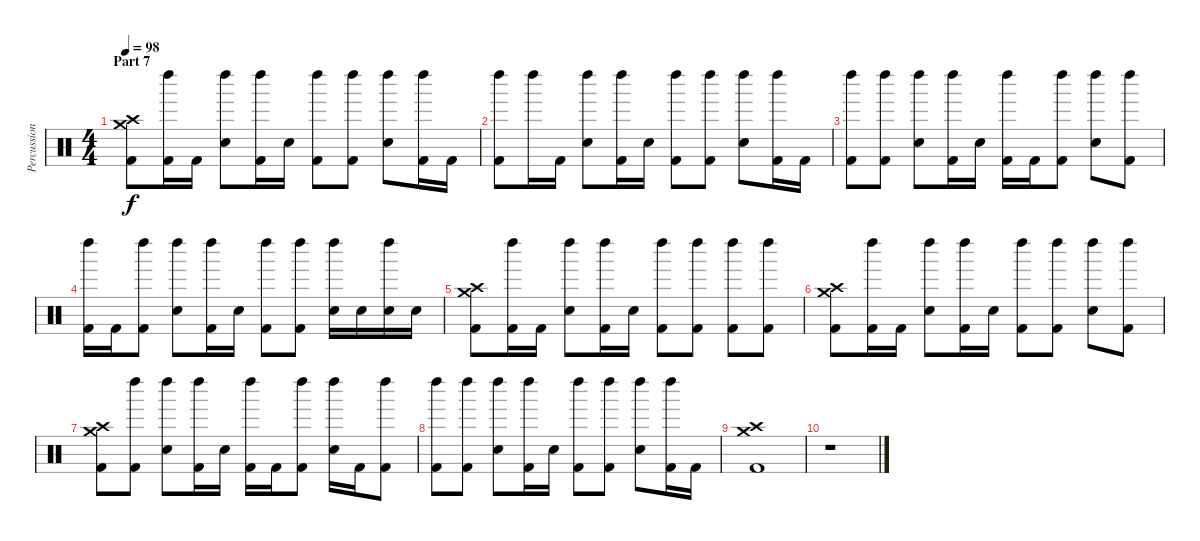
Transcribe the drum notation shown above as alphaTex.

\track ("Percussion" "Percussion") {instrument percussion}
\staff {score}
\articulation defaults
\ts (4 4)
\section ("" "Part 7")
\tempo 98
\clef neutral
\ks c
("Crash medium (hit)" "Crash high (hit)" "Kick (hit) 2").8{dy f} ("Left Maraca (hit)" "Kick (hit) 2").16 "Kick (hit) 2".16 ("Left Maraca (hit)" "Snare (hit) 2").8 ("Left Maraca (hit)" "Kick (hit) 2").16 "Snare (hit) 2".16 ("Left Maraca (hit)" "Kick (hit) 2").8 ("Left Maraca (hit)" "Kick (hit) 2").8 ("Left Maraca (hit)" "Snare (hit) 2").8 ("Left Maraca (hit)" "Kick (hit) 2").16 "Kick (hit) 2".16 |
("Left Maraca (hit)" "Kick (hit) 2").8 "Left Maraca (hit)".16 "Kick (hit) 2".16 ("Left Maraca (hit)" "Snare (hit) 2").8 ("Left Maraca (hit)" "Kick (hit) 2").16 "Snare (hit) 2".16 ("Left Maraca (hit)" "Kick (hit) 2").8 ("Left Maraca (hit)" "Kick (hit) 2").8 ("Left Maraca (hit)" "Snare (hit) 2").8 ("Left Maraca (hit)" "Kick (hit) 2").16 "Kick (hit) 2".16 |
("Left Maraca (hit)" "Kick (hit) 2").8 ("Left Maraca (hit)" "Kick (hit) 2").8 ("Left Maraca (hit)" "Snare (hit) 2").8 ("Left Maraca (hit)" "Kick (hit) 2").16 "Snare (hit) 2".16 ("Left Maraca (hit)" "Kick (hit) 2").16 "Kick (hit) 2".16 ("Left Maraca (hit)" "Kick (hit) 2").8 ("Left Maraca (hit)" "Snare (hit) 2").8 ("Left Maraca (hit)" "Kick (hit) 2").8 |
("Left Maraca (hit)" "Kick (hit) 2").16 "Kick (hit) 2".16 ("Left Maraca (hit)" "Kick (hit) 2").8 ("Left Maraca (hit)" "Snare (hit) 2").8 ("Left Maraca (hit)" "Kick (hit) 2").16 "Snare (hit) 2".16 ("Left Maraca (hit)" "Kick (hit) 2").8 ("Left Maraca (hit)" "Kick (hit) 2").8 ("Left Maraca (hit)" "Snare (hit) 2").16 "Snare (hit) 2".16 ("Left Maraca (hit)" "Snare (hit) 2").16 "Snare (hit) 2".16 |
("Crash medium (hit)" "Crash high (hit)" "Kick (hit) 2").8 ("Left Maraca (hit)" "Kick (hit) 2").16 "Kick (hit) 2".16 ("Left Maraca (hit)" "Snare (hit) 2").8 ("Left Maraca (hit)" "Kick (hit) 2").16 "Snare (hit) 2".16 ("Left Maraca (hit)" "Kick (hit) 2").8 ("Left Maraca (hit)" "Kick (hit) 2").8 ("Left Maraca (hit)" "Kick (hit) 2").8 ("Left Maraca (hit)" "Kick (hit) 2").8 |
("Crash medium (hit)" "Crash high (hit)" "Kick (hit) 2").8 ("Left Maraca (hit)" "Kick (hit) 2").16 "Kick (hit) 2".16 ("Left Maraca (hit)" "Snare (hit) 2").8 ("Left Maraca (hit)" "Kick (hit) 2").16 "Snare (hit) 2".16 ("Left Maraca (hit)" "Kick (hit) 2").8 ("Left Maraca (hit)" "Kick (hit) 2").8 ("Left Maraca (hit)" "Snare (hit) 2").8 ("Left Maraca (hit)" "Kick (hit) 2").8 |
("Crash medium (hit)" "Crash high (hit)" "Kick (hit) 2").8 ("Left Maraca (hit)" "Kick (hit) 2").8 ("Left Maraca (hit)" "Snare (hit) 2").8 ("Left Maraca (hit)" "Kick (hit) 2").16 "Snare (hit) 2".16 ("Left Maraca (hit)" "Kick (hit) 2").16 "Kick (hit) 2".16 ("Left Maraca (hit)" "Kick (hit) 2").8 ("Left Maraca (hit)" "Snare (hit) 2").16 "Kick (hit) 2".16 ("Left Maraca (hit)" "Kick (hit) 2").8 |
("Left Maraca (hit)" "Kick (hit) 2").8 ("Left Maraca (hit)" "Kick (hit) 2").8 ("Left Maraca (hit)" "Snare (hit) 2").8 ("Left Maraca (hit)" "Kick (hit) 2").16 "Snare (hit) 2".16 ("Left Maraca (hit)" "Kick (hit) 2").8 ("Left Maraca (hit)" "Kick (hit) 2").8 ("Left Maraca (hit)" "Snare (hit) 2").8 ("Left Maraca (hit)" "Kick (hit) 2").16 "Kick (hit) 2".16 |
("Crash medium (hit)" "Crash high (hit)" "Kick (hit) 2").1 |
r.1
